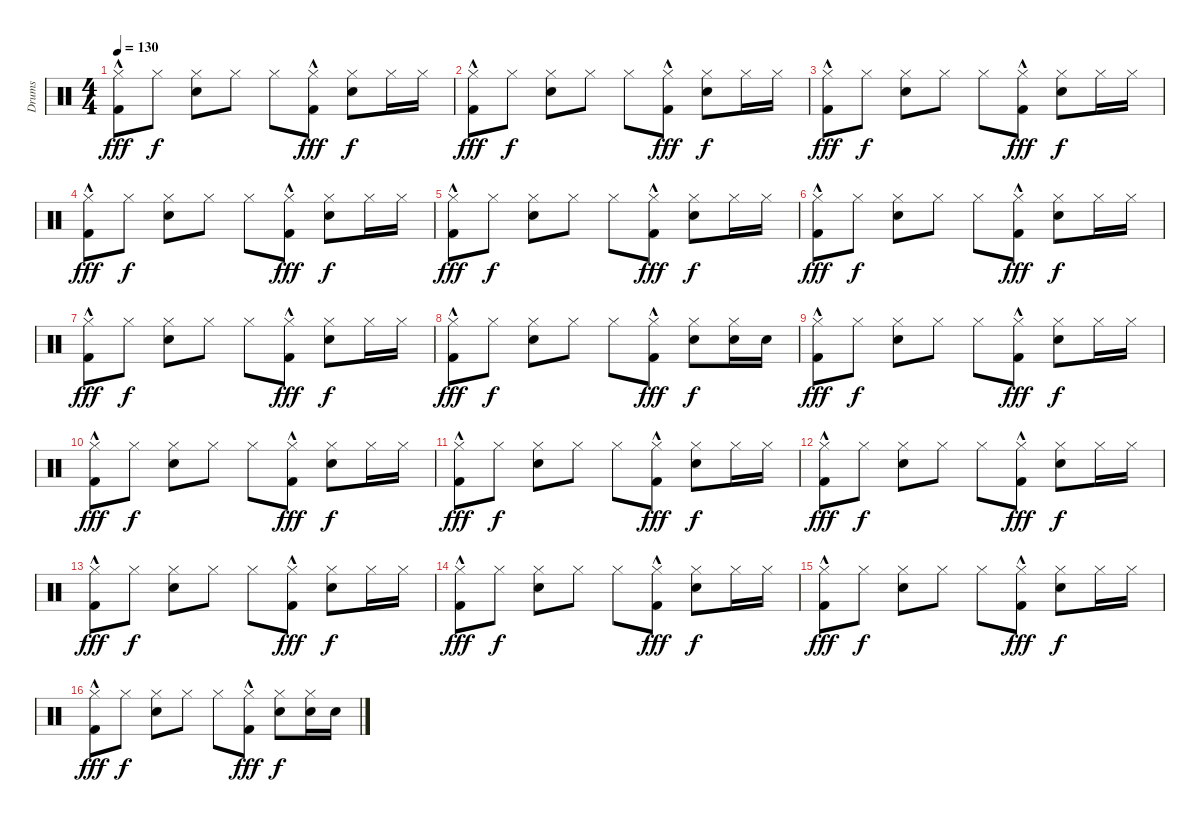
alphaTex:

\track ("Drums" "Drums") {instrument percussion}
\staff {score}
\articulation defaults
\ts (4 4)
\tempo 130
\clef neutral
\ks c
("Hi-Hat (closed)" "Kick (hit) 2"{hac}).8{dy fff} "Hi-Hat (closed)".8{dy f} ("Hi-Hat (closed)" "Snare (hit) 2").8 "Hi-Hat (closed)".8 "Hi-Hat (closed)".8 ("Hi-Hat (closed)" "Kick (hit) 2"{hac}).8{dy fff} ("Hi-Hat (closed)" "Snare (hit) 2").8{dy f} "Hi-Hat (closed)".16 "Hi-Hat (closed)".16 |
("Hi-Hat (closed)" "Kick (hit) 2"{hac}).8{dy fff} "Hi-Hat (closed)".8{dy f} ("Hi-Hat (closed)" "Snare (hit) 2").8 "Hi-Hat (closed)".8 "Hi-Hat (closed)".8 ("Hi-Hat (closed)" "Kick (hit) 2"{hac}).8{dy fff} ("Hi-Hat (closed)" "Snare (hit) 2").8{dy f} "Hi-Hat (closed)".16 "Hi-Hat (closed)".16 |
("Hi-Hat (closed)" "Kick (hit) 2"{hac}).8{dy fff} "Hi-Hat (closed)".8{dy f} ("Hi-Hat (closed)" "Snare (hit) 2").8 "Hi-Hat (closed)".8 "Hi-Hat (closed)".8 ("Hi-Hat (closed)" "Kick (hit) 2"{hac}).8{dy fff} ("Hi-Hat (closed)" "Snare (hit) 2").8{dy f} "Hi-Hat (closed)".16 "Hi-Hat (closed)".16 |
("Hi-Hat (closed)" "Kick (hit) 2"{hac}).8{dy fff} "Hi-Hat (closed)".8{dy f} ("Hi-Hat (closed)" "Snare (hit) 2").8 "Hi-Hat (closed)".8 "Hi-Hat (closed)".8 ("Hi-Hat (closed)" "Kick (hit) 2"{hac}).8{dy fff} ("Hi-Hat (closed)" "Snare (hit) 2").8{dy f} "Hi-Hat (closed)".16 "Hi-Hat (closed)".16 |
("Hi-Hat (closed)" "Kick (hit) 2"{hac}).8{dy fff} "Hi-Hat (closed)".8{dy f} ("Hi-Hat (closed)" "Snare (hit) 2").8 "Hi-Hat (closed)".8 "Hi-Hat (closed)".8 ("Hi-Hat (closed)" "Kick (hit) 2"{hac}).8{dy fff} ("Hi-Hat (closed)" "Snare (hit) 2").8{dy f} "Hi-Hat (closed)".16 "Hi-Hat (closed)".16 |
("Hi-Hat (closed)" "Kick (hit) 2"{hac}).8{dy fff} "Hi-Hat (closed)".8{dy f} ("Hi-Hat (closed)" "Snare (hit) 2").8 "Hi-Hat (closed)".8 "Hi-Hat (closed)".8 ("Hi-Hat (closed)" "Kick (hit) 2"{hac}).8{dy fff} ("Hi-Hat (closed)" "Snare (hit) 2").8{dy f} "Hi-Hat (closed)".16 "Hi-Hat (closed)".16 |
("Hi-Hat (closed)" "Kick (hit) 2"{hac}).8{dy fff} "Hi-Hat (closed)".8{dy f} ("Hi-Hat (closed)" "Snare (hit) 2").8 "Hi-Hat (closed)".8 "Hi-Hat (closed)".8 ("Hi-Hat (closed)" "Kick (hit) 2"{hac}).8{dy fff} ("Hi-Hat (closed)" "Snare (hit) 2").8{dy f} "Hi-Hat (closed)".16 "Hi-Hat (closed)".16 |
("Hi-Hat (closed)" "Kick (hit) 2"{hac}).8{dy fff} "Hi-Hat (closed)".8{dy f} ("Hi-Hat (closed)" "Snare (hit) 2").8 "Hi-Hat (closed)".8 "Hi-Hat (closed)".8 ("Hi-Hat (closed)" "Kick (hit) 2"{hac}).8{dy fff} ("Hi-Hat (closed)" "Snare (hit) 2").8{dy f} ("Hi-Hat (closed)" "Snare (hit) 2").16 "Snare (hit) 2".16 |
("Hi-Hat (closed)" "Kick (hit) 2"{hac}).8{dy fff} "Hi-Hat (closed)".8{dy f} ("Hi-Hat (closed)" "Snare (hit) 2").8 "Hi-Hat (closed)".8 "Hi-Hat (closed)".8 ("Hi-Hat (closed)" "Kick (hit) 2"{hac}).8{dy fff} ("Hi-Hat (closed)" "Snare (hit) 2").8{dy f} "Hi-Hat (closed)".16 "Hi-Hat (closed)".16 |
("Hi-Hat (closed)" "Kick (hit) 2"{hac}).8{dy fff} "Hi-Hat (closed)".8{dy f} ("Hi-Hat (closed)" "Snare (hit) 2").8 "Hi-Hat (closed)".8 "Hi-Hat (closed)".8 ("Hi-Hat (closed)" "Kick (hit) 2"{hac}).8{dy fff} ("Hi-Hat (closed)" "Snare (hit) 2").8{dy f} "Hi-Hat (closed)".16 "Hi-Hat (closed)".16 |
("Hi-Hat (closed)" "Kick (hit) 2"{hac}).8{dy fff} "Hi-Hat (closed)".8{dy f} ("Hi-Hat (closed)" "Snare (hit) 2").8 "Hi-Hat (closed)".8 "Hi-Hat (closed)".8 ("Hi-Hat (closed)" "Kick (hit) 2"{hac}).8{dy fff} ("Hi-Hat (closed)" "Snare (hit) 2").8{dy f} "Hi-Hat (closed)".16 "Hi-Hat (closed)".16 |
("Hi-Hat (closed)" "Kick (hit) 2"{hac}).8{dy fff} "Hi-Hat (closed)".8{dy f} ("Hi-Hat (closed)" "Snare (hit) 2").8 "Hi-Hat (closed)".8 "Hi-Hat (closed)".8 ("Hi-Hat (closed)" "Kick (hit) 2"{hac}).8{dy fff} ("Hi-Hat (closed)" "Snare (hit) 2").8{dy f} "Hi-Hat (closed)".16 "Hi-Hat (closed)".16 |
("Hi-Hat (closed)" "Kick (hit) 2"{hac}).8{dy fff} "Hi-Hat (closed)".8{dy f} ("Hi-Hat (closed)" "Snare (hit) 2").8 "Hi-Hat (closed)".8 "Hi-Hat (closed)".8 ("Hi-Hat (closed)" "Kick (hit) 2"{hac}).8{dy fff} ("Hi-Hat (closed)" "Snare (hit) 2").8{dy f} "Hi-Hat (closed)".16 "Hi-Hat (closed)".16 |
("Hi-Hat (closed)" "Kick (hit) 2"{hac}).8{dy fff} "Hi-Hat (closed)".8{dy f} ("Hi-Hat (closed)" "Snare (hit) 2").8 "Hi-Hat (closed)".8 "Hi-Hat (closed)".8 ("Hi-Hat (closed)" "Kick (hit) 2"{hac}).8{dy fff} ("Hi-Hat (closed)" "Snare (hit) 2").8{dy f} "Hi-Hat (closed)".16 "Hi-Hat (closed)".16 |
("Hi-Hat (closed)" "Kick (hit) 2"{hac}).8{dy fff} "Hi-Hat (closed)".8{dy f} ("Hi-Hat (closed)" "Snare (hit) 2").8 "Hi-Hat (closed)".8 "Hi-Hat (closed)".8 ("Hi-Hat (closed)" "Kick (hit) 2"{hac}).8{dy fff} ("Hi-Hat (closed)" "Snare (hit) 2").8{dy f} "Hi-Hat (closed)".16 "Hi-Hat (closed)".16 |
("Hi-Hat (closed)" "Kick (hit) 2"{hac}).8{dy fff} "Hi-Hat (closed)".8{dy f} ("Hi-Hat (closed)" "Snare (hit) 2").8 "Hi-Hat (closed)".8 "Hi-Hat (closed)".8 ("Hi-Hat (closed)" "Kick (hit) 2"{hac}).8{dy fff} ("Hi-Hat (closed)" "Snare (hit) 2").8{dy f} ("Hi-Hat (closed)" "Snare (hit) 2").16 "Snare (hit) 2".16
